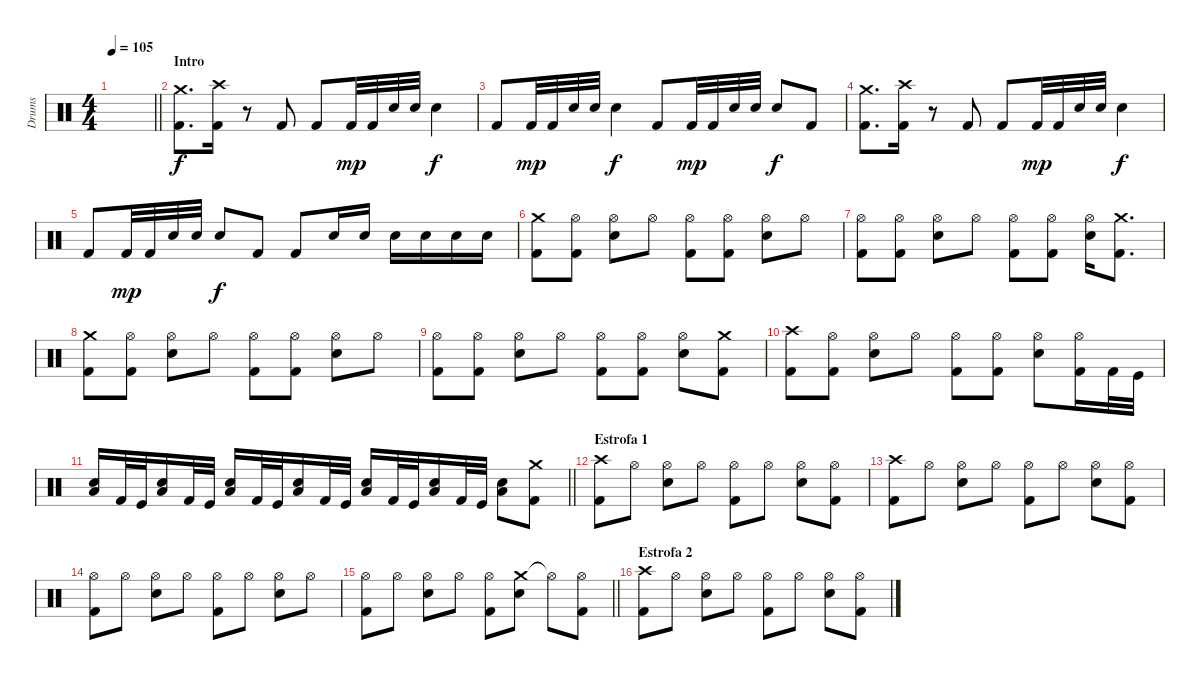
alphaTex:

\track ("Drums" "Drums") {instrument percussion}
\staff {score}
\articulation defaults
\ts (4 4)
\tempo 105
\clef neutral
\barLineRight lightlight
\ks c
|
\section ("" "Intro")
("Crash medium (hit)" "Kick (hit) 2").8{d} ("Crash high (hit)" "Kick (hit) 2").16 r.8 "Kick (hit) 2".8 "Kick (hit) 2".8 "Kick (hit) 2".32{dy mp} "Kick (hit) 2".32 "Snare (hit) 2".32 "Snare (hit) 2".32 "Snare (hit) 2".4{dy f} |
"Kick (hit) 2".8 "Kick (hit) 2".32{dy mp} "Kick (hit) 2".32 "Snare (hit) 2".32 "Snare (hit) 2".32 "Snare (hit) 2".4{dy f} "Kick (hit) 2".8 "Kick (hit) 2".32{dy mp} "Kick (hit) 2".32 "Snare (hit) 2".32 "Snare (hit) 2".32 "Snare (hit) 2".8{dy f} "Kick (hit) 2".8 |
("Crash medium (hit)" "Kick (hit) 2").8{d} ("Crash high (hit)" "Kick (hit) 2").16 r.8 "Kick (hit) 2".8 "Kick (hit) 2".8 "Kick (hit) 2".32{dy mp} "Kick (hit) 2".32 "Snare (hit) 2".32 "Snare (hit) 2".32 "Snare (hit) 2".4{dy f} |
"Kick (hit) 2".8 "Kick (hit) 2".32{dy mp} "Kick (hit) 2".32 "Snare (hit) 2".32 "Snare (hit) 2".32 "Snare (hit) 2".8{dy f} "Kick (hit) 2".8 "Kick (hit) 2".8 "Snare (hit) 2".16 "Snare (hit) 2".16 "Snare (hit) 2".16 "Snare (hit) 2".16 "Snare (hit) 2".16 "Snare (hit) 2".16 |
("Crash medium (hit)" "Kick (hit) 2").8 ("Hi-Hat (open)" "Kick (hit) 2").8 ("Hi-Hat (open)" "Snare (hit) 2").8 "Hi-Hat (open)".8 ("Hi-Hat (open)" "Kick (hit) 2").8 ("Hi-Hat (open)" "Kick (hit) 2").8 ("Hi-Hat (open)" "Snare (hit) 2").8 "Hi-Hat (open)".8 |
("Hi-Hat (open)" "Kick (hit) 2").8 ("Hi-Hat (open)" "Kick (hit) 2").8 ("Hi-Hat (open)" "Snare (hit) 2").8 "Hi-Hat (open)".8 ("Hi-Hat (open)" "Kick (hit) 2").8 ("Hi-Hat (open)" "Kick (hit) 2").8 ("Hi-Hat (open)" "Snare (hit) 2").16 ("Crash medium (hit)" "Kick (hit) 2").8{d} |
("Crash medium (hit)" "Kick (hit) 2").8 ("Hi-Hat (open)" "Kick (hit) 2").8 ("Hi-Hat (open)" "Snare (hit) 2").8 "Hi-Hat (open)".8 ("Hi-Hat (open)" "Kick (hit) 2").8 ("Hi-Hat (open)" "Kick (hit) 2").8 ("Hi-Hat (open)" "Snare (hit) 2").8 "Hi-Hat (open)".8 |
("Hi-Hat (open)" "Kick (hit) 2").8 ("Hi-Hat (open)" "Kick (hit) 2").8 ("Hi-Hat (open)" "Snare (hit) 2").8 "Hi-Hat (open)".8 ("Hi-Hat (open)" "Kick (hit) 2").8 ("Hi-Hat (open)" "Kick (hit) 2").8 ("Hi-Hat (open)" "Snare (hit) 2").8 ("Crash medium (hit)" "Kick (hit) 2").8 |
("Crash high (hit)" "Kick (hit) 2").8 ("Hi-Hat (open)" "Kick (hit) 2").8 ("Hi-Hat (open)" "Snare (hit) 2").8 "Hi-Hat (open)".8 ("Hi-Hat (open)" "Kick (hit) 2").8 ("Hi-Hat (open)" "Kick (hit) 2").8 ("Hi-Hat (open)" "Snare (hit) 2").8 ("Hi-Hat (open)" "Kick (hit) 2").16 "Kick (hit) 2".32 "Kick (hit)".32 |
\barLineRight lightlight
("Low Floor Tom (hit)" "Snare (hit) 2").16 "Kick (hit) 2".32 "Kick (hit)".32 ("Low Floor Tom (hit)" "Snare (hit) 2").16 "Kick (hit) 2".32 "Kick (hit)".32 ("Low Floor Tom (hit)" "Snare (hit) 2").16 "Kick (hit) 2".32 "Kick (hit)".32 ("Low Floor Tom (hit)" "Snare (hit) 2").16 "Kick (hit) 2".32 "Kick (hit)".32 ("Low Floor Tom (hit)" "Snare (hit) 2").16 "Kick (hit) 2".32 "Kick (hit)".32 ("Low Floor Tom (hit)" "Snare (hit) 2").16 "Kick (hit) 2".32 "Kick (hit)".32 ("Low Floor Tom (hit)" "Snare (hit) 2").8 ("Crash medium (hit)" "Kick (hit) 2").8 |
\section ("" "Estrofa 1")
("Crash high (hit)" "Kick (hit) 2").8 "Hi-Hat (open)".8 ("Hi-Hat (open)" "Snare (hit) 2").8 "Hi-Hat (open)".8 ("Hi-Hat (open)" "Kick (hit) 2").8 "Hi-Hat (open)".8 ("Hi-Hat (open)" "Snare (hit) 2").8 ("Hi-Hat (open)" "Kick (hit) 2").8 |
("Crash high (hit)" "Kick (hit) 2").8 "Hi-Hat (open)".8 ("Hi-Hat (open)" "Snare (hit) 2").8 "Hi-Hat (open)".8 ("Hi-Hat (open)" "Kick (hit) 2").8 "Hi-Hat (open)".8 ("Hi-Hat (open)" "Snare (hit) 2").8 ("Hi-Hat (open)" "Kick (hit) 2").8 |
("Hi-Hat (open)" "Kick (hit) 2").8 "Hi-Hat (open)".8 ("Hi-Hat (open)" "Snare (hit) 2").8 "Hi-Hat (open)".8 ("Hi-Hat (open)" "Kick (hit) 2").8 "Hi-Hat (open)".8 ("Hi-Hat (open)" "Snare (hit) 2").8 "Hi-Hat (open)".8 |
\barLineRight lightlight
("Hi-Hat (open)" "Kick (hit) 2").8 "Hi-Hat (open)".8 ("Hi-Hat (open)" "Snare (hit) 2").8 "Hi-Hat (open)".8 ("Hi-Hat (open)" "Kick (hit) 2").8 ("Crash medium (hit)" "Snare (hit) 2").8 "Hi-Hat (open)"{t}.8 ("Hi-Hat (open)" "Kick (hit) 2").8 |
\section ("" "Estrofa 2")
("Crash high (hit)" "Kick (hit) 2").8 "Hi-Hat (open)".8 ("Hi-Hat (open)" "Snare (hit) 2").8 "Hi-Hat (open)".8 ("Hi-Hat (open)" "Kick (hit) 2").8 "Hi-Hat (open)".8 ("Hi-Hat (open)" "Snare (hit) 2").8 ("Hi-Hat (open)" "Kick (hit) 2").8
